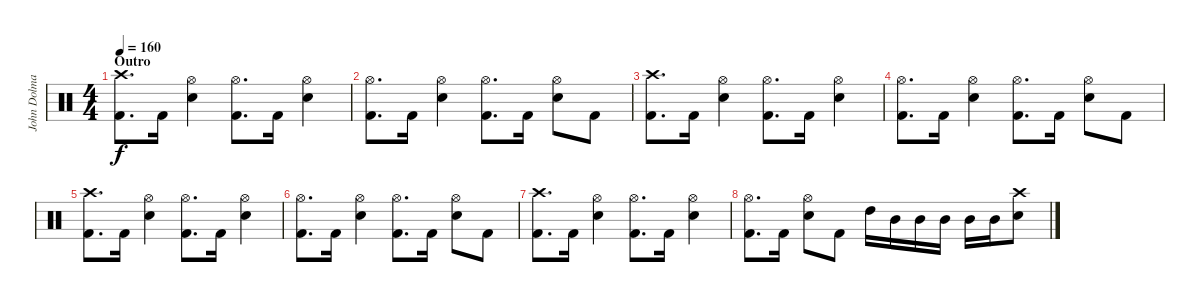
\track ("John Dolmayan" "John Dolma") {instrument percussion}
\staff {score}
\articulation defaults
\ts (4 4)
\section ("" "Outro")
\tempo 160
\clef neutral
\ks c
("Crash high (hit)" "Kick (hit) 2").8{d dy f} "Kick (hit) 2".16 ("Hi-Hat (open)" "Electric Snare (hit)").4 ("Hi-Hat (open)" "Kick (hit) 2").8{d} "Kick (hit) 2".16 ("Hi-Hat (open)" "Electric Snare (hit)").4 |
("Hi-Hat (open)" "Kick (hit) 2").8{d} "Kick (hit) 2".16 ("Hi-Hat (open)" "Electric Snare (hit)").4 ("Hi-Hat (open)" "Kick (hit) 2").8{d} "Kick (hit) 2".16 ("Hi-Hat (open)" "Electric Snare (hit)").8 "Kick (hit) 2".8 |
("Crash high (hit)" "Kick (hit) 2").8{d} "Kick (hit) 2".16 ("Hi-Hat (open)" "Electric Snare (hit)").4 ("Hi-Hat (open)" "Kick (hit) 2").8{d} "Kick (hit) 2".16 ("Hi-Hat (open)" "Electric Snare (hit)").4 |
("Hi-Hat (open)" "Kick (hit) 2").8{d} "Kick (hit) 2".16 ("Hi-Hat (open)" "Electric Snare (hit)").4 ("Hi-Hat (open)" "Kick (hit) 2").8{d} "Kick (hit) 2".16 ("Hi-Hat (open)" "Electric Snare (hit)").8 "Kick (hit) 2".8 |
("Crash high (hit)" "Kick (hit) 2").8{d} "Kick (hit) 2".16 ("Hi-Hat (open)" "Electric Snare (hit)").4 ("Hi-Hat (open)" "Kick (hit) 2").8{d} "Kick (hit) 2".16 ("Hi-Hat (open)" "Electric Snare (hit)").4 |
("Hi-Hat (open)" "Kick (hit) 2").8{d} "Kick (hit) 2".16 ("Hi-Hat (open)" "Electric Snare (hit)").4 ("Hi-Hat (open)" "Kick (hit) 2").8{d} "Kick (hit) 2".16 ("Hi-Hat (open)" "Electric Snare (hit)").8 "Kick (hit) 2".8 |
("Crash high (hit)" "Kick (hit) 2").8{d} "Kick (hit) 2".16 ("Hi-Hat (open)" "Electric Snare (hit)").4 ("Hi-Hat (open)" "Kick (hit) 2").8{d} "Kick (hit) 2".16 ("Hi-Hat (open)" "Electric Snare (hit)").4 |
("Hi-Hat (open)" "Kick (hit) 2").8{d} "Kick (hit) 2".16 ("Hi-Hat (open)" "Electric Snare (hit)").8 "Kick (hit) 2".8 "High Tom (hit)".16 "Mid Tom (hit)".16 "Mid Tom (hit)".16 "Mid Tom (hit)".16 "Mid Tom (hit)".16 "Mid Tom (hit)".16 ("Crash high (hit)" "Electric Snare (hit)").8
